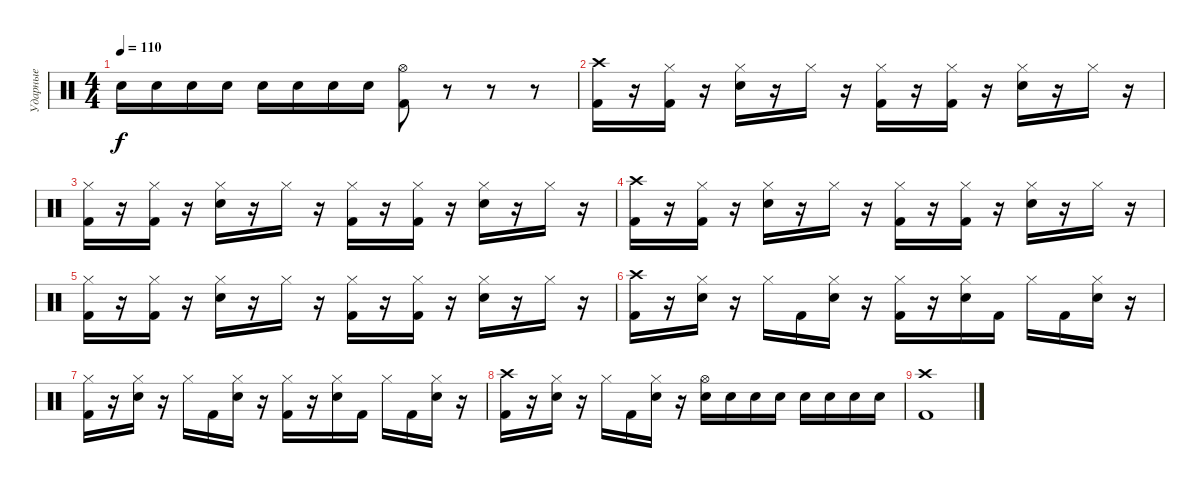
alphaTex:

\track ("Ударные" "Ударные") {instrument percussion}
\staff {score}
\articulation defaults
\ts (4 4)
\tempo 110
\clef neutral
\ks c "Electric Snare (hit)".16{dy f} "Electric Snare (hit)".16 "Electric Snare (hit)".16 "Electric Snare (hit)".16 "Electric Snare (hit)".16 "Electric Snare (hit)".16 "Electric Snare (hit)".16 "Electric Snare (hit)".16
("Hi-Hat (open)" "Kick (hit) 2").8 r.8 r.8 r.8 |
("Crash high (hit)" "Kick (hit) 2").16 r.16 ("Hi-Hat (closed)" "Kick (hit) 2").16 r.16 ("Hi-Hat (closed)" "Electric Snare (hit)").16 r.16 "Hi-Hat (closed)".16 r.16 ("Hi-Hat (closed)" "Kick (hit) 2").16 r.16 ("Hi-Hat (closed)" "Kick (hit) 2").16 r.16 ("Hi-Hat (closed)" "Electric Snare (hit)").16 r.16 "Hi-Hat (closed)".16 r.16 |
("Hi-Hat (closed)" "Kick (hit) 2").16 r.16 ("Hi-Hat (closed)" "Kick (hit) 2").16 r.16 ("Hi-Hat (closed)" "Electric Snare (hit)").16 r.16 "Hi-Hat (closed)".16 r.16 ("Hi-Hat (closed)" "Kick (hit) 2").16 r.16 ("Hi-Hat (closed)" "Kick (hit) 2").16 r.16 ("Hi-Hat (closed)" "Electric Snare (hit)").16 r.16 "Hi-Hat (closed)".16 r.16 |
("Crash high (hit)" "Kick (hit) 2").16 r.16 ("Hi-Hat (closed)" "Kick (hit) 2").16 r.16 ("Hi-Hat (closed)" "Electric Snare (hit)").16 r.16 "Hi-Hat (closed)".16 r.16 ("Hi-Hat (closed)" "Kick (hit) 2").16 r.16 ("Hi-Hat (closed)" "Kick (hit) 2").16 r.16 ("Hi-Hat (closed)" "Electric Snare (hit)").16 r.16 "Hi-Hat (closed)".16 r.16 |
("Hi-Hat (closed)" "Kick (hit) 2").16 r.16 ("Hi-Hat (closed)" "Kick (hit) 2").16 r.16 ("Hi-Hat (closed)" "Electric Snare (hit)").16 r.16 "Hi-Hat (closed)".16 r.16 ("Hi-Hat (closed)" "Kick (hit) 2").16 r.16 ("Hi-Hat (closed)" "Kick (hit) 2").16 r.16 ("Hi-Hat (closed)" "Electric Snare (hit)").16 r.16 "Hi-Hat (closed)".16 r.16 |
("Crash high (hit)" "Kick (hit) 2").16 r.16 ("Hi-Hat (closed)" "Electric Snare (hit)").16 r.16 "Hi-Hat (closed)".16 "Kick (hit) 2".16 ("Hi-Hat (closed)" "Electric Snare (hit)").16 r.16 ("Hi-Hat (closed)" "Kick (hit) 2").16 r.16 ("Hi-Hat (closed)" "Electric Snare (hit)").16 "Kick (hit) 2".16 "Hi-Hat (closed)".16 "Kick (hit) 2".16 ("Hi-Hat (closed)" "Electric Snare (hit)").16 r.16 |
("Hi-Hat (closed)" "Kick (hit) 2").16 r.16 ("Hi-Hat (closed)" "Electric Snare (hit)").16 r.16 "Hi-Hat (closed)".16 "Kick (hit) 2".16 ("Hi-Hat (closed)" "Electric Snare (hit)").16 r.16 ("Hi-Hat (closed)" "Kick (hit) 2").16 r.16 ("Hi-Hat (closed)" "Electric Snare (hit)").16 "Kick (hit) 2".16 "Hi-Hat (closed)".16 "Kick (hit) 2".16 ("Hi-Hat (closed)" "Electric Snare (hit)").16 r.16 |
("Crash high (hit)" "Kick (hit) 2").16 r.16 ("Hi-Hat (closed)" "Electric Snare (hit)").16 r.16 "Hi-Hat (closed)".16 "Kick (hit) 2".16 ("Hi-Hat (closed)" "Electric Snare (hit)").16 r.16 ("Hi-Hat (open)" "Electric Snare (hit)").16 "Electric Snare (hit)".16 "Electric Snare (hit)".16 "Electric Snare (hit)".16 "Electric Snare (hit)".16 "Electric Snare (hit)".16 "Electric Snare (hit)".16 "Electric Snare (hit)".16 |
("Crash high (hit)" "Kick (hit) 2").1
